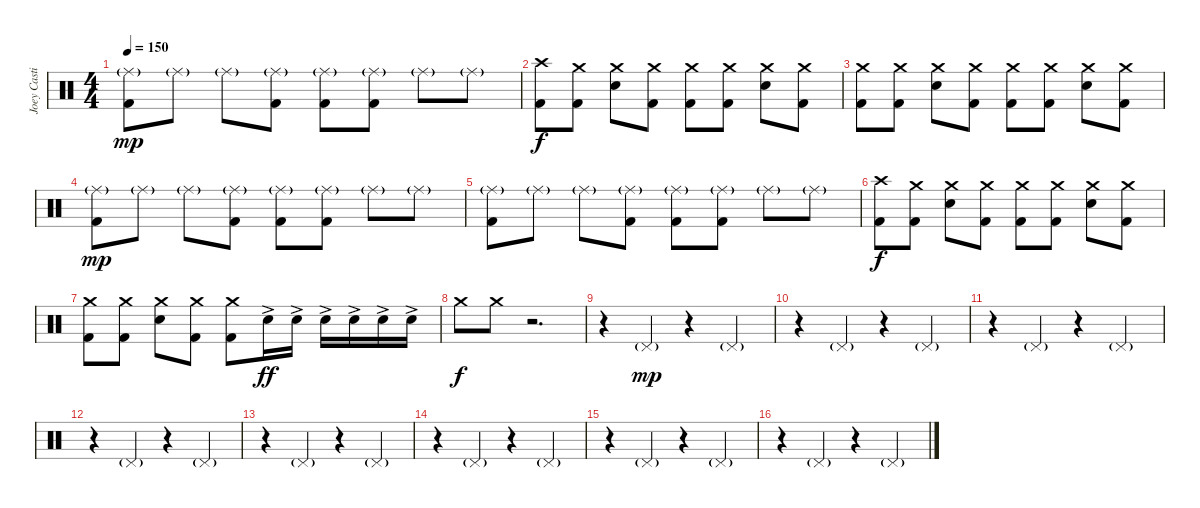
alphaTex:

\track ("Joey Castillo" "Joey Casti") {instrument percussion}
\staff {score}
\articulation defaults
\ts (4 4)
\tempo 150
\clef neutral
\ks c
("Ride (middle)"{g} "Kick (hit) 2").8{dy mp} "Ride (middle)"{g}.8 "Ride (middle)"{g}.8 ("Ride (middle)"{g} "Kick (hit) 2").8 ("Ride (middle)"{g} "Kick (hit) 2").8 ("Ride (middle)"{g} "Kick (hit) 2").8 "Ride (middle)"{g}.8 "Ride (middle)"{g}.8 |
("Crash high (hit)" "Kick (hit) 2").8{dy f} ("Crash medium (hit)" "Kick (hit) 2").8 ("Crash medium (hit)" "Snare (hit) 2").8 ("Crash medium (hit)" "Kick (hit) 2").8 ("Crash medium (hit)" "Kick (hit) 2").8 ("Crash medium (hit)" "Kick (hit) 2").8 ("Crash medium (hit)" "Snare (hit) 2").8 ("Crash medium (hit)" "Kick (hit) 2").8 |
("Crash medium (hit)" "Kick (hit) 2").8 ("Crash medium (hit)" "Kick (hit) 2").8 ("Crash medium (hit)" "Snare (hit) 2").8 ("Crash medium (hit)" "Kick (hit) 2").8 ("Crash medium (hit)" "Kick (hit) 2").8 ("Crash medium (hit)" "Kick (hit) 2").8 ("Crash medium (hit)" "Snare (hit) 2").8 ("Crash medium (hit)" "Kick (hit) 2").8 |
("Ride (middle)"{g} "Kick (hit) 2").8{dy mp} "Ride (middle)"{g}.8 "Ride (middle)"{g}.8 ("Ride (middle)"{g} "Kick (hit) 2").8 ("Ride (middle)"{g} "Kick (hit) 2").8 ("Ride (middle)"{g} "Kick (hit) 2").8 "Ride (middle)"{g}.8 "Ride (middle)"{g}.8 |
("Ride (middle)"{g} "Kick (hit) 2").8 "Ride (middle)"{g}.8 "Ride (middle)"{g}.8 ("Ride (middle)"{g} "Kick (hit) 2").8 ("Ride (middle)"{g} "Kick (hit) 2").8 ("Ride (middle)"{g} "Kick (hit) 2").8 "Ride (middle)"{g}.8 "Ride (middle)"{g}.8 |
("Crash high (hit)" "Kick (hit) 2").8{dy f} ("Crash medium (hit)" "Kick (hit) 2").8 ("Crash medium (hit)" "Snare (hit) 2").8 ("Crash medium (hit)" "Kick (hit) 2").8 ("Crash medium (hit)" "Kick (hit) 2").8 ("Crash medium (hit)" "Kick (hit) 2").8 ("Crash medium (hit)" "Snare (hit) 2").8 ("Crash medium (hit)" "Kick (hit) 2").8 |
("Crash medium (hit)" "Kick (hit) 2").8 ("Crash medium (hit)" "Kick (hit) 2").8 ("Crash medium (hit)" "Snare (hit) 2").8 ("Crash medium (hit)" "Kick (hit) 2").8 ("Crash medium (hit)" "Kick (hit) 2").8 "Snare (hit) 2"{ac}.16{dy ff} "Snare (hit) 2"{ac}.16 "Snare (hit) 2"{ac}.16 "Snare (hit) 2"{ac}.16 "Snare (hit) 2"{ac}.16 "Snare (hit) 2"{ac}.16 |
"Crash medium (hit)".8{dy f} "Crash medium (hit)".8 r.2{d volume 0} |
r.4 "Pedal Hi-Hat (hit)"{g}.4{dy mp volume 10} r.4 "Pedal Hi-Hat (hit)"{g}.4 |
r.4 "Pedal Hi-Hat (hit)"{g}.4 r.4 "Pedal Hi-Hat (hit)"{g}.4 |
r.4 "Pedal Hi-Hat (hit)"{g}.4 r.4 "Pedal Hi-Hat (hit)"{g}.4 |
r.4 "Pedal Hi-Hat (hit)"{g}.4 r.4 "Pedal Hi-Hat (hit)"{g}.4 |
r.4 "Pedal Hi-Hat (hit)"{g}.4 r.4 "Pedal Hi-Hat (hit)"{g}.4 |
r.4 "Pedal Hi-Hat (hit)"{g}.4 r.4 "Pedal Hi-Hat (hit)"{g}.4 |
r.4 "Pedal Hi-Hat (hit)"{g}.4 r.4 "Pedal Hi-Hat (hit)"{g}.4 |
r.4 "Pedal Hi-Hat (hit)"{g}.4 r.4 "Pedal Hi-Hat (hit)"{g}.4
